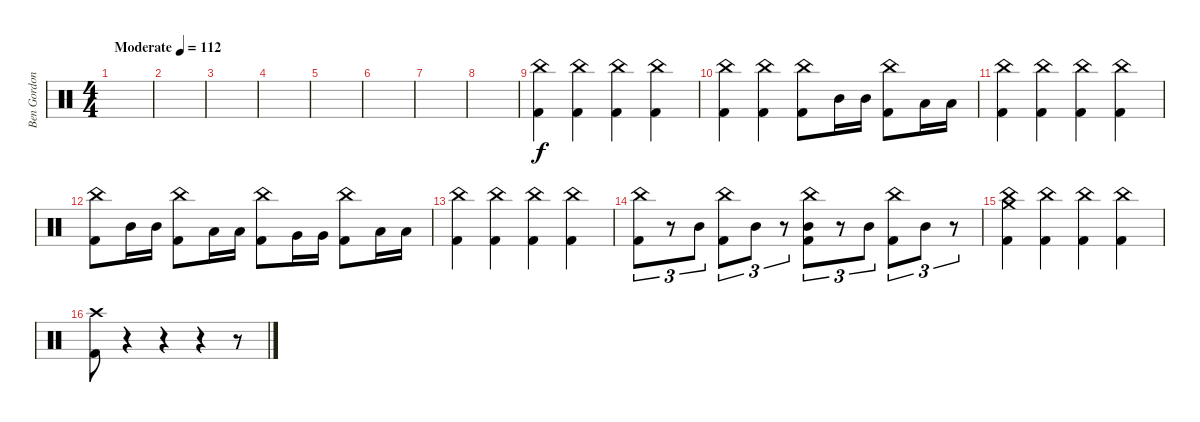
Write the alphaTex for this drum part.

\track ("Ben Gordon" "Ben Gordon") {instrument percussion}
\staff {score}
\articulation defaults
\ts (4 4)
\tempo (112 "Moderate")
\clef neutral
\ks c
|
|
|
|
|
|
|
|
("China (hit)" "Kick (hit) 2").4 ("China (hit)" "Kick (hit) 2").4 ("China (hit)" "Kick (hit) 2").4 ("China (hit)" "Kick (hit) 2").4 |
("China (hit)" "Kick (hit) 2").4 ("China (hit)" "Kick (hit) 2").4 ("China (hit)" "Kick (hit) 2").8 "Mid Tom (hit)".16 "Mid Tom (hit)".16 ("China (hit)" "Kick (hit) 2").8 "Low Tom (hit)".16 "Low Tom (hit)".16 |
("China (hit)" "Kick (hit) 2").4 ("China (hit)" "Kick (hit) 2").4 ("China (hit)" "Kick (hit) 2").4 ("China (hit)" "Kick (hit) 2").4 |
("China (hit)" "Kick (hit) 2").8 "Mid Tom (hit)".16 "Mid Tom (hit)".16 ("China (hit)" "Kick (hit) 2").8 "Low Tom (hit)".16 "Low Tom (hit)".16 ("China (hit)" "Kick (hit) 2").8 "Very Low Tom (hit)".16 "Very Low Tom (hit)".16 ("China (hit)" "Kick (hit) 2").8 "Low Floor Tom (hit)".16 "Low Floor Tom (hit)".16 |
("China (hit)" "Kick (hit) 2").4 ("China (hit)" "Kick (hit) 2").4 ("China (hit)" "Kick (hit) 2").4 ("China (hit)" "Kick (hit) 2").4 |
("China (hit)" "Kick (hit) 2").8{tu (3 2)} r.8{tu (3 2)} "Mid Tom (hit)".8{tu (3 2)} ("China (hit)" "Kick (hit) 2").8{tu (3 2)} "Mid Tom (hit)".8{tu (3 2)} r.8{tu (3 2)} ("China (hit)" "Mid Tom (hit)" "Kick (hit) 2").8{tu (3 2)} r.8{tu (3 2)} "Mid Tom (hit)".8{tu (3 2)} ("China (hit)" "Kick (hit) 2").8{tu (3 2)} "Mid Tom (hit)".8{tu (3 2)} r.8{tu (3 2)} |
("China (hit)" "Crash medium (hit)" "Kick (hit) 2").4 ("China (hit)" "Kick (hit) 2").4 ("China (hit)" "Kick (hit) 2").4 ("China (hit)" "Kick (hit) 2").4 |
("Crash high (hit)" "Kick (hit) 2").8 r.4 r.4 r.4 r.8
